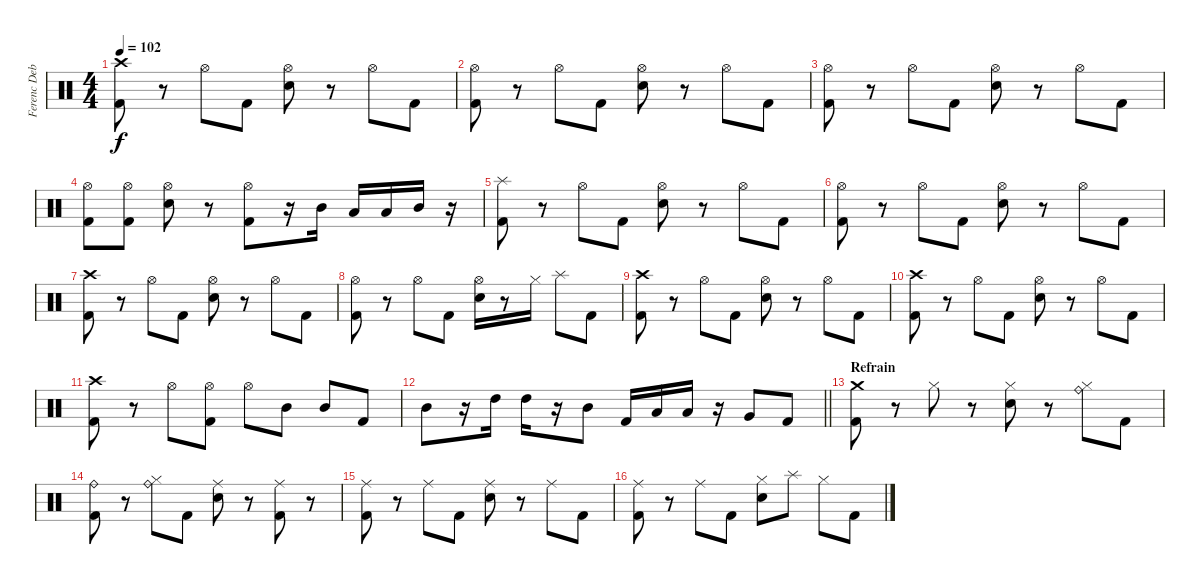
\track ("Ferenc Debreczeni - drums" "Ferenc Deb") {instrument percussion}
\staff {score}
\articulation defaults
\ts (4 4)
\tempo 102
\clef neutral
\ks c
("Crash high (hit)" "Kick (hit) 2").8{dy f} r.8 "Hi-Hat (open)".8 "Kick (hit) 2".8 ("Hi-Hat (open)" "Snare (hit) 2").8 r.8 "Hi-Hat (open)".8 "Kick (hit) 2".8 |
("Hi-Hat (open)" "Kick (hit) 2").8 r.8 "Hi-Hat (open)".8 "Kick (hit) 2".8 ("Hi-Hat (open)" "Snare (hit) 2").8 r.8 "Hi-Hat (open)".8 "Kick (hit) 2".8 |
("Hi-Hat (open)" "Kick (hit) 2").8 r.8 "Hi-Hat (open)".8 "Kick (hit) 2".8 ("Hi-Hat (open)" "Snare (hit) 2").8 r.8 "Hi-Hat (open)".8 "Kick (hit) 2".8 |
("Hi-Hat (open)" "Kick (hit) 2").8 ("Hi-Hat (open)" "Kick (hit) 2").8 ("Hi-Hat (open)" "Snare (hit) 2").8 r.8 ("Hi-Hat (open)" "Kick (hit) 2").8 r.16 "Mid Tom (hit)".16 "Low Tom (hit)".16 "Low Tom (hit)".16 "Mid Tom (hit)".16 r.16 |
("Splash (hit)" "Kick (hit) 2").8 r.8 "Hi-Hat (open)".8 "Kick (hit) 2".8 ("Hi-Hat (open)" "Snare (hit) 2").8 r.8 "Hi-Hat (open)".8 "Kick (hit) 2".8 |
("Hi-Hat (open)" "Kick (hit) 2").8 r.8 "Hi-Hat (open)".8 "Kick (hit) 2".8 ("Hi-Hat (open)" "Snare (hit) 2").8 r.8 "Hi-Hat (open)".8 "Kick (hit) 2".8 |
("Crash high (hit)" "Kick (hit) 2").8 r.8 "Hi-Hat (open)".8 "Kick (hit) 2".8 ("Hi-Hat (open)" "Snare (hit) 2").8 r.8 "Hi-Hat (open)".8 "Kick (hit) 2".8 |
("Hi-Hat (open)" "Kick (hit) 2").8 r.8 "Hi-Hat (open)".8 "Kick (hit) 2".8 ("Hi-Hat (open)" "Snare (hit) 2").16 r.8 "Hi-Hat (closed)".16 "Splash (hit)".8 "Kick (hit) 2".8 |
("Crash high (hit)" "Kick (hit) 2").8 r.8 "Hi-Hat (open)".8 "Kick (hit) 2".8 ("Hi-Hat (open)" "Snare (hit) 2").8 r.8 "Hi-Hat (open)".8 "Kick (hit) 2".8 |
("Crash high (hit)" "Kick (hit) 2").8 r.8 "Hi-Hat (open)".8 "Kick (hit) 2".8 ("Hi-Hat (open)" "Snare (hit) 2").8 r.8 "Hi-Hat (open)".8 "Kick (hit) 2".8 |
("Crash high (hit)" "Kick (hit) 2").8 r.8 "Hi-Hat (open)".8 ("Hi-Hat (open)" "Kick (hit) 2").8 "Hi-Hat (open)".8 "Mid Tom (hit)".8 "Mid Tom (hit)".8 "Kick (hit) 2".8 |
\barLineRight lightlight "Mid Tom (hit)".8
r.16 "High Tom (hit)".16 "High Tom (hit)".16 r.16 "Mid Tom (hit)".8 "Kick (hit) 2".16 "Low Tom (hit)".16 "Low Tom (hit)".16 r.16 "Very Low Tom (hit)".8 "Kick (hit) 2".8 |
\section ("" "Refrain")
("Kick (hit) 2" "Crash medium (hit)").8 r.8 "Hi-Hat (closed)".8 r.8 ("Snare (hit) 2" "Hi-Hat (closed)").8 r.8 ("Ride (bell)" "Hi-Hat (closed)").8 "Kick (hit) 2".8 |
("Kick (hit) 2" "Ride (bell)").8 r.8 ("Ride (bell)" "Hi-Hat (closed)").8 "Kick (hit) 2".8 ("Snare (hit) 2" "Ride (middle)").8 r.8 ("Kick (hit) 2" "Ride (middle)").8 r.8 |
("Kick (hit) 2" "Ride (middle)").8 r.8 "Ride (middle)".8 "Kick (hit) 2".8 ("Snare (hit) 2" "Ride (middle)").8 r.8 "Ride (middle)".8 "Kick (hit) 2".8 |
("Kick (hit) 2" "Ride (middle)").8 r.8 "Ride (middle)".8 "Kick (hit) 2".8 ("Snare (hit) 2" "Hi-Hat (closed)").8 "Splash (hit)".8 "Hi-Hat (closed)".8 "Kick (hit) 2".8
